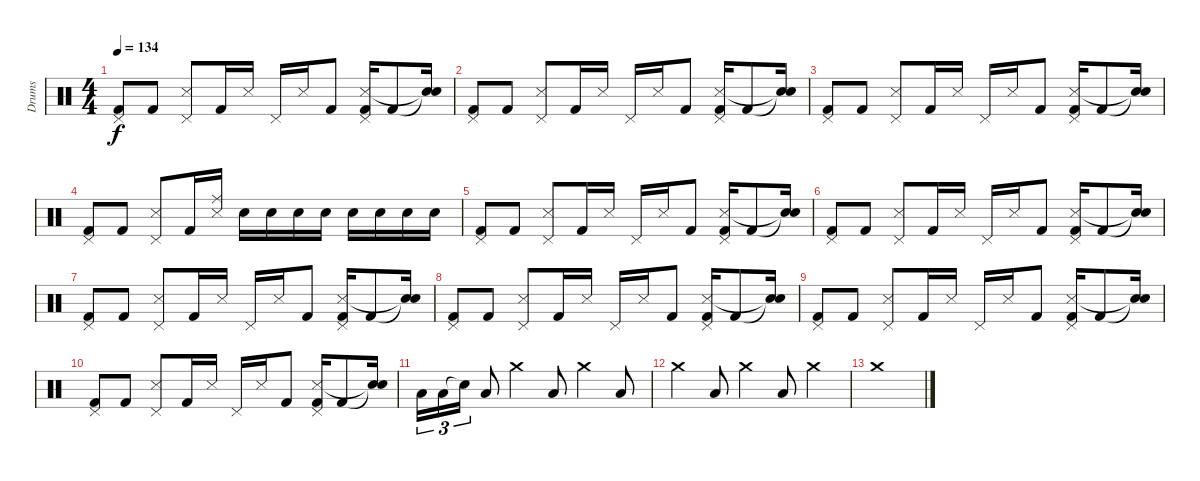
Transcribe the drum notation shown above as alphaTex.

\track ("Drums" "Drums") {instrument percussion}
\staff {score}
\articulation defaults
\ts (4 4)
\tempo 134
\clef neutral
\ks c
("Pedal Hi-Hat (hit)" "Kick (hit) 2").8{dy f} "Kick (hit) 2".8 ("Snare (side stick) 3" "Pedal Hi-Hat (hit)").8 "Kick (hit) 2".16 "Snare (side stick) 3".16 "Pedal Hi-Hat (hit)".16 "Snare (side stick) 3".16 "Kick (hit) 2".8 ("Pedal Hi-Hat (hit)" "Snare (side stick) 3" "Kick (hit) 2").16 "Kick (hit) 2".8 ("Snare (hit)"{t} "Snare (hit)"{t}).16 |
("Pedal Hi-Hat (hit)" "Kick (hit) 2").8 "Kick (hit) 2".8 ("Snare (side stick) 3" "Pedal Hi-Hat (hit)").8 "Kick (hit) 2".16 "Snare (side stick) 3".16 "Pedal Hi-Hat (hit)".16 "Snare (side stick) 3".16 "Kick (hit) 2".8 ("Pedal Hi-Hat (hit)" "Snare (side stick) 3" "Kick (hit) 2").16 "Kick (hit) 2".8 ("Snare (hit)"{t} "Snare (hit)"{t}).16 |
("Pedal Hi-Hat (hit)" "Kick (hit) 2").8 "Kick (hit) 2".8 ("Snare (side stick) 3" "Pedal Hi-Hat (hit)").8 "Kick (hit) 2".16 "Snare (side stick) 3".16 "Pedal Hi-Hat (hit)".16 "Snare (side stick) 3".16 "Kick (hit) 2".8 ("Pedal Hi-Hat (hit)" "Snare (side stick) 3" "Kick (hit) 2").16 "Kick (hit) 2".8 ("Snare (hit)"{t} "Snare (hit)"{t}).16 |
("Pedal Hi-Hat (hit)" "Kick (hit) 2").8 "Kick (hit) 2".8 ("Snare (side stick) 3" "Pedal Hi-Hat (hit)").8 "Kick (hit) 2".16 ("Snare (side stick) 3" "Ride (middle)").16 "Electric Snare (hit)".16 "Electric Snare (hit)".16 "Electric Snare (hit)".16 "Electric Snare (hit)".16 "Electric Snare (hit)".16 "Electric Snare (hit)".16 "Electric Snare (hit)".16 "Electric Snare (hit)".16 |
("Pedal Hi-Hat (hit)" "Kick (hit) 2").8 "Kick (hit) 2".8 ("Snare (side stick) 3" "Pedal Hi-Hat (hit)").8 "Kick (hit) 2".16 "Snare (side stick) 3".16 "Pedal Hi-Hat (hit)".16 "Snare (side stick) 3".16 "Kick (hit) 2".8 ("Pedal Hi-Hat (hit)" "Snare (side stick) 3" "Kick (hit) 2").16 "Kick (hit) 2".8 ("Snare (hit)"{t} "Snare (hit)"{t}).16 |
("Pedal Hi-Hat (hit)" "Kick (hit) 2").8 "Kick (hit) 2".8 ("Snare (side stick) 3" "Pedal Hi-Hat (hit)").8 "Kick (hit) 2".16 "Snare (side stick) 3".16 "Pedal Hi-Hat (hit)".16 "Snare (side stick) 3".16 "Kick (hit) 2".8 ("Pedal Hi-Hat (hit)" "Snare (side stick) 3" "Kick (hit) 2").16 "Kick (hit) 2".8 ("Snare (hit)"{t} "Snare (hit)"{t}).16 |
("Pedal Hi-Hat (hit)" "Kick (hit) 2").8 "Kick (hit) 2".8 ("Snare (side stick) 3" "Pedal Hi-Hat (hit)").8 "Kick (hit) 2".16 "Snare (side stick) 3".16 "Pedal Hi-Hat (hit)".16 "Snare (side stick) 3".16 "Kick (hit) 2".8 ("Pedal Hi-Hat (hit)" "Snare (side stick) 3" "Kick (hit) 2").16 "Kick (hit) 2".8 ("Snare (hit)"{t} "Snare (hit)"{t}).16 |
("Pedal Hi-Hat (hit)" "Kick (hit) 2").8 "Kick (hit) 2".8 ("Snare (side stick) 3" "Pedal Hi-Hat (hit)").8 "Kick (hit) 2".16 "Snare (side stick) 3".16 "Pedal Hi-Hat (hit)".16 "Snare (side stick) 3".16 "Kick (hit) 2".8 ("Pedal Hi-Hat (hit)" "Snare (side stick) 3" "Kick (hit) 2").16 "Kick (hit) 2".8 ("Snare (hit)"{t} "Snare (hit)"{t}).16 |
("Pedal Hi-Hat (hit)" "Kick (hit) 2").8 "Kick (hit) 2".8 ("Snare (side stick) 3" "Pedal Hi-Hat (hit)").8 "Kick (hit) 2".16 "Snare (side stick) 3".16 "Pedal Hi-Hat (hit)".16 "Snare (side stick) 3".16 "Kick (hit) 2".8 ("Pedal Hi-Hat (hit)" "Snare (side stick) 3" "Kick (hit) 2").16 "Kick (hit) 2".8 ("Snare (hit)"{t} "Snare (hit)"{t}).16 |
("Pedal Hi-Hat (hit)" "Kick (hit) 2").8 "Kick (hit) 2".8 ("Snare (side stick) 3" "Pedal Hi-Hat (hit)").8 "Kick (hit) 2".16 "Snare (side stick) 3".16 "Pedal Hi-Hat (hit)".16 "Snare (side stick) 3".16 "Kick (hit) 2".8 ("Pedal Hi-Hat (hit)" "Snare (side stick) 3" "Kick (hit) 2").16 "Kick (hit) 2".8 ("Snare (hit)"{t} "Snare (hit)"{t}).16 |
"Low Floor Tom (hit)".16{tu (3 2)} "Low Floor Tom (hit)".16{tu (3 2)} "Snare (hit)"{t}.16{tu (3 2)} "Low Floor Tom (hit)".8 "Crash medium (hit)".4 "Low Floor Tom (hit)".8 "Crash medium (hit)".4 "Low Floor Tom (hit)".8 |
"Crash medium (hit)".4 "Low Floor Tom (hit)".8 "Crash medium (hit)".4 "Low Floor Tom (hit)".8 "Crash medium (hit)".4 |
"Crash medium (hit)".1
